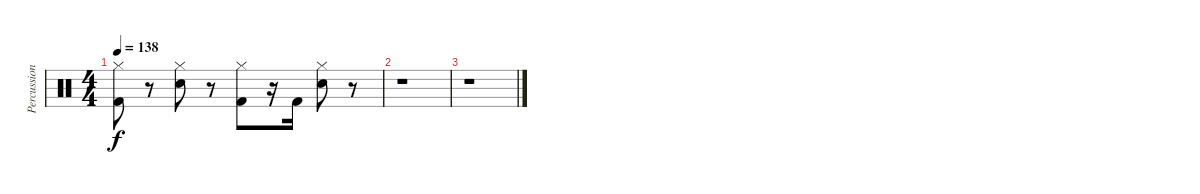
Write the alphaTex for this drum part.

\track ("Percussions" "Percussion") {instrument percussion}
\staff {score}
\articulation defaults
\ts (4 4)
\tempo 138
\clef neutral
\ks c
("Hi-Hat (closed)" "Kick (hit) 2").8{dy f} r.8 ("Hi-Hat (closed)" "Electric Snare (hit)").8 r.8 ("Hi-Hat (closed)" "Kick (hit) 2").8 r.16 "Kick (hit) 2".16 ("Hi-Hat (closed)" "Electric Snare (hit)").8 r.8 |
r.1 |
r.1
